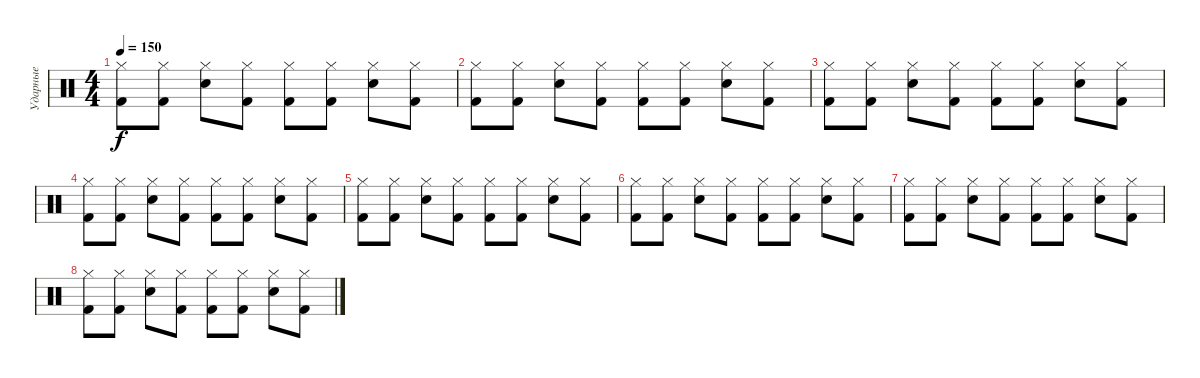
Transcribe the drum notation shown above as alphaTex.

\track ("Ударные" "Ударные") {instrument percussion}
\staff {score}
\articulation defaults
\ts (4 4)
\tempo 150
\clef neutral
\ks c
("Hi-Hat (closed)" "Kick (hit) 2").8{dy f} ("Hi-Hat (closed)" "Kick (hit) 2").8 ("Hi-Hat (closed)" "Snare (hit) 2").8 ("Hi-Hat (closed)" "Kick (hit) 2").8 ("Hi-Hat (closed)" "Kick (hit) 2").8 ("Hi-Hat (closed)" "Kick (hit) 2").8 ("Hi-Hat (closed)" "Snare (hit) 2").8 ("Hi-Hat (closed)" "Kick (hit) 2").8 |
("Hi-Hat (closed)" "Kick (hit) 2").8 ("Hi-Hat (closed)" "Kick (hit) 2").8 ("Hi-Hat (closed)" "Snare (hit) 2").8 ("Hi-Hat (closed)" "Kick (hit) 2").8 ("Hi-Hat (closed)" "Kick (hit) 2").8 ("Hi-Hat (closed)" "Kick (hit) 2").8 ("Hi-Hat (closed)" "Snare (hit) 2").8 ("Hi-Hat (closed)" "Kick (hit) 2").8 |
("Hi-Hat (closed)" "Kick (hit) 2").8 ("Hi-Hat (closed)" "Kick (hit) 2").8 ("Hi-Hat (closed)" "Snare (hit) 2").8 ("Hi-Hat (closed)" "Kick (hit) 2").8 ("Hi-Hat (closed)" "Kick (hit) 2").8 ("Hi-Hat (closed)" "Kick (hit) 2").8 ("Hi-Hat (closed)" "Snare (hit) 2").8 ("Hi-Hat (closed)" "Kick (hit) 2").8 |
("Hi-Hat (closed)" "Kick (hit) 2").8 ("Hi-Hat (closed)" "Kick (hit) 2").8 ("Hi-Hat (closed)" "Snare (hit) 2").8 ("Hi-Hat (closed)" "Kick (hit) 2").8 ("Hi-Hat (closed)" "Kick (hit) 2").8 ("Hi-Hat (closed)" "Kick (hit) 2").8 ("Hi-Hat (closed)" "Snare (hit) 2").8 ("Hi-Hat (closed)" "Kick (hit) 2").8 |
("Hi-Hat (closed)" "Kick (hit) 2").8 ("Hi-Hat (closed)" "Kick (hit) 2").8 ("Hi-Hat (closed)" "Snare (hit) 2").8 ("Hi-Hat (closed)" "Kick (hit) 2").8 ("Hi-Hat (closed)" "Kick (hit) 2").8 ("Hi-Hat (closed)" "Kick (hit) 2").8 ("Hi-Hat (closed)" "Snare (hit) 2").8 ("Hi-Hat (closed)" "Kick (hit) 2").8 |
("Hi-Hat (closed)" "Kick (hit) 2").8 ("Hi-Hat (closed)" "Kick (hit) 2").8 ("Hi-Hat (closed)" "Snare (hit) 2").8 ("Hi-Hat (closed)" "Kick (hit) 2").8 ("Hi-Hat (closed)" "Kick (hit) 2").8 ("Hi-Hat (closed)" "Kick (hit) 2").8 ("Hi-Hat (closed)" "Snare (hit) 2").8 ("Hi-Hat (closed)" "Kick (hit) 2").8 |
("Hi-Hat (closed)" "Kick (hit) 2").8 ("Hi-Hat (closed)" "Kick (hit) 2").8 ("Hi-Hat (closed)" "Snare (hit) 2").8 ("Hi-Hat (closed)" "Kick (hit) 2").8 ("Hi-Hat (closed)" "Kick (hit) 2").8 ("Hi-Hat (closed)" "Kick (hit) 2").8 ("Hi-Hat (closed)" "Snare (hit) 2").8 ("Hi-Hat (closed)" "Kick (hit) 2").8 |
("Hi-Hat (closed)" "Kick (hit) 2").8 ("Hi-Hat (closed)" "Kick (hit) 2").8 ("Hi-Hat (closed)" "Snare (hit) 2").8 ("Hi-Hat (closed)" "Kick (hit) 2").8 ("Hi-Hat (closed)" "Kick (hit) 2").8 ("Hi-Hat (closed)" "Kick (hit) 2").8 ("Hi-Hat (closed)" "Snare (hit) 2").8 ("Hi-Hat (closed)" "Kick (hit) 2").8
